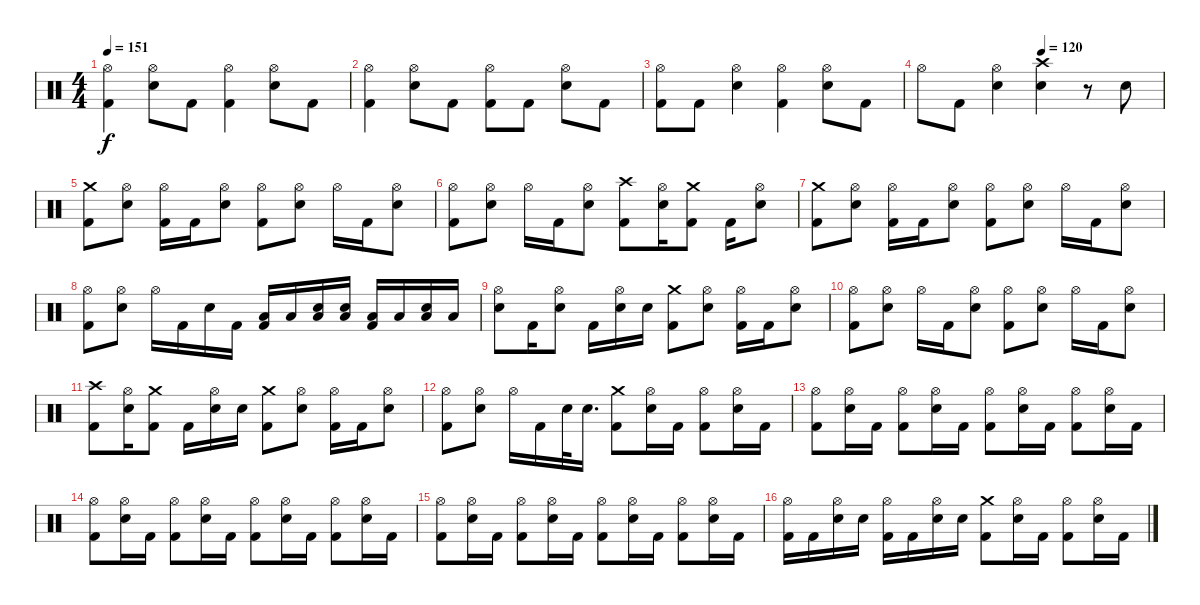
\track "" {instrument percussion}
\staff {score}
\articulation defaults
\ts (4 4)
\tempo 151
\clef neutral
\ks c
("Kick (hit) 2" "Hi-Hat (open)").4{dy f} ("Snare (hit) 2" "Hi-Hat (open)").8 "Kick (hit) 2".8 ("Kick (hit) 2" "Hi-Hat (open)").4 ("Snare (hit) 2" "Hi-Hat (open)").8 "Kick (hit) 2".8 |
("Kick (hit) 2" "Hi-Hat (open)").4 ("Snare (hit) 2" "Hi-Hat (open)").8 "Kick (hit) 2".8 ("Kick (hit) 2" "Hi-Hat (open)").8 "Kick (hit) 2".8 ("Snare (hit) 2" "Hi-Hat (open)").8 "Kick (hit) 2".8 |
("Kick (hit) 2" "Hi-Hat (open)").8 "Kick (hit) 2".8 ("Snare (hit) 2" "Hi-Hat (open)").4 ("Kick (hit) 2" "Hi-Hat (open)").4 ("Snare (hit) 2" "Hi-Hat (open)").8 "Kick (hit) 2".8 |
\tempo (120 0.5)
"Hi-Hat (open)".8 "Kick (hit) 2".8 ("Snare (hit) 2" "Hi-Hat (open)").4 ("Snare (hit) 2" "Crash high (hit)").4 r.8 "Snare (hit) 2".8 |
("Crash medium (hit)" "Kick (hit) 2").8 ("Snare (hit) 2" "Hi-Hat (open)").8 ("Hi-Hat (open)" "Kick (hit) 2").16 "Kick (hit) 2".16 ("Hi-Hat (open)" "Snare (hit) 2").8 ("Hi-Hat (open)" "Kick (hit) 2").8 ("Hi-Hat (open)" "Snare (hit) 2").8 "Hi-Hat (open)".16 "Kick (hit) 2".16 ("Hi-Hat (open)" "Snare (hit) 2").8 |
("Hi-Hat (open)" "Kick (hit) 2").8 ("Hi-Hat (open)" "Snare (hit) 2").8 "Hi-Hat (open)".16 "Kick (hit) 2".16 ("Hi-Hat (open)" "Snare (hit) 2").8 ("Kick (hit) 2" "Crash high (hit)").8 ("Snare (hit) 2" "Hi-Hat (open)").16 ("Crash medium (hit)" "Kick (hit) 2").8 "Kick (hit) 2".16 ("Snare (hit) 2" "Hi-Hat (open)").8 |
("Crash medium (hit)" "Kick (hit) 2").8 ("Snare (hit) 2" "Hi-Hat (open)").8 ("Hi-Hat (open)" "Kick (hit) 2").16 "Kick (hit) 2".16 ("Hi-Hat (open)" "Snare (hit) 2").8 ("Hi-Hat (open)" "Kick (hit) 2").8 ("Hi-Hat (open)" "Snare (hit) 2").8 "Hi-Hat (open)".16 "Kick (hit) 2".16 ("Hi-Hat (open)" "Snare (hit) 2").8 |
("Hi-Hat (open)" "Kick (hit) 2").8 ("Hi-Hat (open)" "Snare (hit) 2").8 "Hi-Hat (open)".16 "Kick (hit) 2".16 "Snare (hit) 2".16 "Kick (hit) 2".16 ("Kick (hit) 2" "Low Floor Tom (hit)").16 "Low Floor Tom (hit)".16 ("Snare (hit) 2" "Low Floor Tom (hit)").16 ("Low Floor Tom (hit)" "Snare (hit) 2").16 ("Kick (hit) 2" "Low Floor Tom (hit)").16 "Low Floor Tom (hit)".16 ("Snare (hit) 2" "Low Floor Tom (hit)").16 "Low Floor Tom (hit)".16 |
("Snare (hit) 2" "Hi-Hat (open)").8 "Kick (hit) 2".16 ("Snare (hit) 2" "Hi-Hat (open)").8 "Kick (hit) 2".16 ("Snare (hit) 2" "Hi-Hat (open)").16 "Snare (hit) 2".16 ("Crash medium (hit)" "Kick (hit) 2").8 ("Snare (hit) 2" "Hi-Hat (open)").8 ("Hi-Hat (open)" "Kick (hit) 2").16 "Kick (hit) 2".16 ("Hi-Hat (open)" "Snare (hit) 2").8 |
("Hi-Hat (open)" "Kick (hit) 2").8 ("Hi-Hat (open)" "Snare (hit) 2").8 "Hi-Hat (open)".16 "Kick (hit) 2".16 ("Hi-Hat (open)" "Snare (hit) 2").8 ("Hi-Hat (open)" "Kick (hit) 2").8 ("Hi-Hat (open)" "Snare (hit) 2").8 "Hi-Hat (open)".16 "Kick (hit) 2".16 ("Hi-Hat (open)" "Snare (hit) 2").8 |
("Kick (hit) 2" "Crash high (hit)").8 ("Snare (hit) 2" "Hi-Hat (open)").16 ("Crash medium (hit)" "Kick (hit) 2").8 "Kick (hit) 2".16 ("Snare (hit) 2" "Hi-Hat (open)").16 "Snare (hit) 2".16 ("Crash medium (hit)" "Kick (hit) 2").8 ("Snare (hit) 2" "Hi-Hat (open)").8 ("Hi-Hat (open)" "Kick (hit) 2").16 "Kick (hit) 2".16 ("Hi-Hat (open)" "Snare (hit) 2").8 |
("Hi-Hat (open)" "Kick (hit) 2").8 ("Hi-Hat (open)" "Snare (hit) 2").8 "Hi-Hat (open)".16 "Kick (hit) 2".16 "Snare (hit) 2".32 "Snare (hit) 2".16{d} ("Kick (hit) 2" "Crash medium (hit)").8 ("Hi-Hat (open)" "Snare (hit) 2").16 "Kick (hit) 2".16 ("Hi-Hat (open)" "Kick (hit) 2").8 ("Hi-Hat (open)" "Snare (hit) 2").16 "Kick (hit) 2".16 |
("Hi-Hat (open)" "Kick (hit) 2").8 ("Hi-Hat (open)" "Snare (hit) 2").16 "Kick (hit) 2".16 ("Hi-Hat (open)" "Kick (hit) 2").8 ("Hi-Hat (open)" "Snare (hit) 2").16 "Kick (hit) 2".16 ("Kick (hit) 2" "Hi-Hat (open)").8 ("Hi-Hat (open)" "Snare (hit) 2").16 "Kick (hit) 2".16 ("Hi-Hat (open)" "Kick (hit) 2").8 ("Hi-Hat (open)" "Snare (hit) 2").16 "Kick (hit) 2".16 |
("Hi-Hat (open)" "Kick (hit) 2").8 ("Hi-Hat (open)" "Snare (hit) 2").16 "Kick (hit) 2".16 ("Hi-Hat (open)" "Kick (hit) 2").8 ("Hi-Hat (open)" "Snare (hit) 2").16 "Kick (hit) 2".16 ("Kick (hit) 2" "Hi-Hat (open)").8 ("Hi-Hat (open)" "Snare (hit) 2").16 "Kick (hit) 2".16 ("Kick (hit) 2" "Hi-Hat (open)").8 ("Hi-Hat (open)" "Snare (hit) 2").16 "Kick (hit) 2".16 |
("Kick (hit) 2" "Hi-Hat (open)").8 ("Hi-Hat (open)" "Snare (hit) 2").16 "Kick (hit) 2".16 ("Kick (hit) 2" "Hi-Hat (open)").8 ("Hi-Hat (open)" "Snare (hit) 2").16 "Kick (hit) 2".16 ("Kick (hit) 2" "Hi-Hat (open)").8 ("Hi-Hat (open)" "Snare (hit) 2").16 "Kick (hit) 2".16 ("Kick (hit) 2" "Hi-Hat (open)").8 ("Hi-Hat (open)" "Snare (hit) 2").16 "Kick (hit) 2".16 |
("Kick (hit) 2" "Hi-Hat (open)").16 "Kick (hit) 2".16 ("Hi-Hat (open)" "Snare (hit) 2").16 "Snare (hit) 2".16 ("Kick (hit) 2" "Hi-Hat (open)").16 "Kick (hit) 2".16 ("Hi-Hat (open)" "Snare (hit) 2").16 "Snare (hit) 2".16 ("Kick (hit) 2" "Crash medium (hit)").8 ("Hi-Hat (open)" "Snare (hit) 2").16 "Kick (hit) 2".16 ("Hi-Hat (open)" "Kick (hit) 2").8 ("Hi-Hat (open)" "Snare (hit) 2").16 "Kick (hit) 2".16
